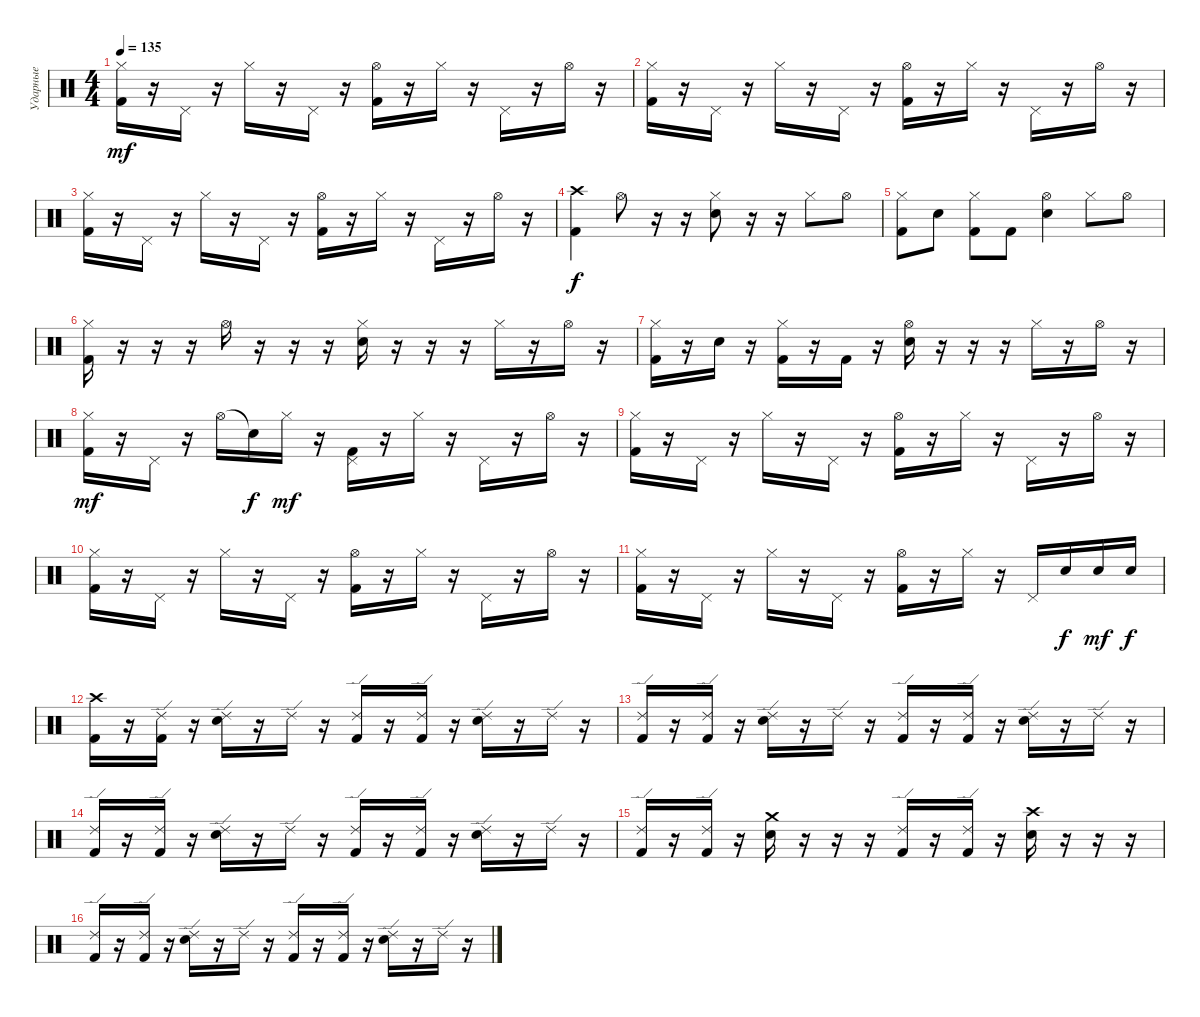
\track ("Ударные" "Ударные") {instrument percussion}
\staff {score}
\articulation defaults
\ts (4 4)
\tempo 135
\clef neutral
\ks c
("Hi-Hat (closed)" "Kick (hit) 2").16{dy mf} r.16 "Pedal Hi-Hat (hit)".16 r.16 "Hi-Hat (closed)".16 r.16 "Pedal Hi-Hat (hit)".16 r.16 ("Hi-Hat (open)" "Kick (hit) 2").16 r.16 "Hi-Hat (closed)".16 r.16 "Pedal Hi-Hat (hit)".16 r.16 "Hi-Hat (open)".16 r.16 |
("Hi-Hat (closed)" "Kick (hit) 2").16 r.16 "Pedal Hi-Hat (hit)".16 r.16 "Hi-Hat (closed)".16 r.16 "Pedal Hi-Hat (hit)".16 r.16 ("Hi-Hat (open)" "Kick (hit) 2").16 r.16 "Hi-Hat (closed)".16 r.16 "Pedal Hi-Hat (hit)".16 r.16 "Hi-Hat (open)".16 r.16 |
("Hi-Hat (closed)" "Kick (hit) 2").16 r.16 "Pedal Hi-Hat (hit)".16 r.16 "Hi-Hat (closed)".16 r.16 "Pedal Hi-Hat (hit)".16 r.16 ("Hi-Hat (open)" "Kick (hit) 2").16 r.16 "Hi-Hat (closed)".16 r.16 "Pedal Hi-Hat (hit)".16 r.16 "Hi-Hat (open)".16 r.16 |
("Crash high (hit)" "Kick (hit) 2").4{dy f} "Hi-Hat (open)".8 r.16 r.16 ("Hi-Hat (closed)" "Electric Snare (hit)").8 r.16 r.16 "Hi-Hat (closed)".8 "Hi-Hat (open)".8 |
("Hi-Hat (closed)" "Kick (hit) 2").8 "Electric Snare (hit)".8 ("Hi-Hat (closed)" "Kick (hit) 2").8 "Kick (hit) 2".8 ("Hi-Hat (open)" "Electric Snare (hit)").4 "Hi-Hat (closed)".8 "Hi-Hat (open)".8 |
("Hi-Hat (closed)" "Kick (hit) 2").16 r.16 r.16 r.16 "Hi-Hat (open)".16 r.16 r.16 r.16 ("Hi-Hat (closed)" "Electric Snare (hit)").16 r.16 r.16 r.16 "Hi-Hat (closed)".16 r.16 "Hi-Hat (open)".16 r.16 |
("Hi-Hat (closed)" "Kick (hit) 2").16 r.16 "Electric Snare (hit)".16 r.16 ("Hi-Hat (closed)" "Kick (hit) 2").16 r.16 "Kick (hit) 2".16 r.16 ("Hi-Hat (open)" "Snare (hit) 2").16 r.16 r.16 r.16 "Hi-Hat (closed)".16 r.16 "Hi-Hat (open)".16 r.16 |
("Hi-Hat (closed)" "Kick (hit) 2").16{dy mf} r.16 "Pedal Hi-Hat (hit)".16 r.16 "Hi-Hat (open)".16 "Snare (hit)"{t}.16{dy f} "Hi-Hat (closed)".16{dy mf} r.16 ("Pedal Hi-Hat (hit)" "Kick (hit) 2").16 r.16 "Hi-Hat (closed)".16 r.16 "Pedal Hi-Hat (hit)".16 r.16 "Hi-Hat (open)".16 r.16 |
("Hi-Hat (closed)" "Kick (hit) 2").16 r.16 "Pedal Hi-Hat (hit)".16 r.16 "Hi-Hat (closed)".16 r.16 "Pedal Hi-Hat (hit)".16 r.16 ("Hi-Hat (open)" "Kick (hit) 2").16 r.16 "Hi-Hat (closed)".16 r.16 "Pedal Hi-Hat (hit)".16 r.16 "Hi-Hat (open)".16 r.16 |
("Hi-Hat (closed)" "Kick (hit) 2").16 r.16 "Pedal Hi-Hat (hit)".16 r.16 "Hi-Hat (closed)".16 r.16 "Pedal Hi-Hat (hit)".16 r.16 ("Hi-Hat (open)" "Kick (hit) 2").16 r.16 "Hi-Hat (closed)".16 r.16 "Pedal Hi-Hat (hit)".16 r.16 "Hi-Hat (open)".16 r.16 |
("Hi-Hat (closed)" "Kick (hit) 2").16 r.16 "Pedal Hi-Hat (hit)".16 r.16 "Hi-Hat (closed)".16 r.16 "Pedal Hi-Hat (hit)".16 r.16 ("Hi-Hat (open)" "Kick (hit) 2").16 r.16 "Hi-Hat (closed)".16 r.16 "Pedal Hi-Hat (hit)".16 "Electric Snare (hit)".16{dy f} "Electric Snare (hit)".16{dy mf} "Electric Snare (hit)".16{dy f} |
("Crash high (hit)" "Kick (hit) 2").16 r.16 ("Ride (edge) 2" "Kick (hit) 2").16 r.16 ("Ride (edge) 2" "Electric Snare (hit)").16 r.16 "Ride (edge) 2".16 r.16 ("Ride (edge) 2" "Kick (hit) 2").16 r.16 ("Ride (edge) 2" "Kick (hit) 2").16 r.16 ("Ride (edge) 2" "Electric Snare (hit)").16 r.16 "Ride (edge) 2".16 r.16 |
("Ride (edge) 2" "Kick (hit) 2").16 r.16 ("Ride (edge) 2" "Kick (hit) 2").16 r.16 ("Ride (edge) 2" "Electric Snare (hit)").16 r.16 "Ride (edge) 2".16 r.16 ("Ride (edge) 2" "Kick (hit) 2").16 r.16 ("Ride (edge) 2" "Kick (hit) 2").16 r.16 ("Ride (edge) 2" "Electric Snare (hit)").16 r.16 "Ride (edge) 2".16 r.16 |
("Ride (edge) 2" "Kick (hit) 2").16 r.16 ("Ride (edge) 2" "Kick (hit) 2").16 r.16 ("Ride (edge) 2" "Electric Snare (hit)").16 r.16 "Ride (edge) 2".16 r.16 ("Ride (edge) 2" "Kick (hit) 2").16 r.16 ("Ride (edge) 2" "Kick (hit) 2").16 r.16 ("Ride (edge) 2" "Electric Snare (hit)").16 r.16 "Ride (edge) 2".16 r.16 |
("Ride (edge) 2" "Kick (hit) 2").16 r.16 ("Ride (edge) 2" "Kick (hit) 2").16 r.16 ("Crash medium (hit)" "Electric Snare (hit)").16 r.16 r.16 r.16 ("Ride (edge) 2" "Kick (hit) 2").16 r.16 ("Ride (edge) 2" "Kick (hit) 2").16 r.16 ("Crash high (hit)" "Electric Snare (hit)").16 r.16 r.16 r.16 |
("Ride (edge) 2" "Kick (hit) 2").16 r.16 ("Ride (edge) 2" "Kick (hit) 2").16 r.16 ("Ride (edge) 2" "Electric Snare (hit)").16 r.16 "Ride (edge) 2".16 r.16 ("Ride (edge) 2" "Kick (hit) 2").16 r.16 ("Ride (edge) 2" "Kick (hit) 2").16 r.16 ("Ride (edge) 2" "Electric Snare (hit)").16 r.16 "Ride (edge) 2".16 r.16
